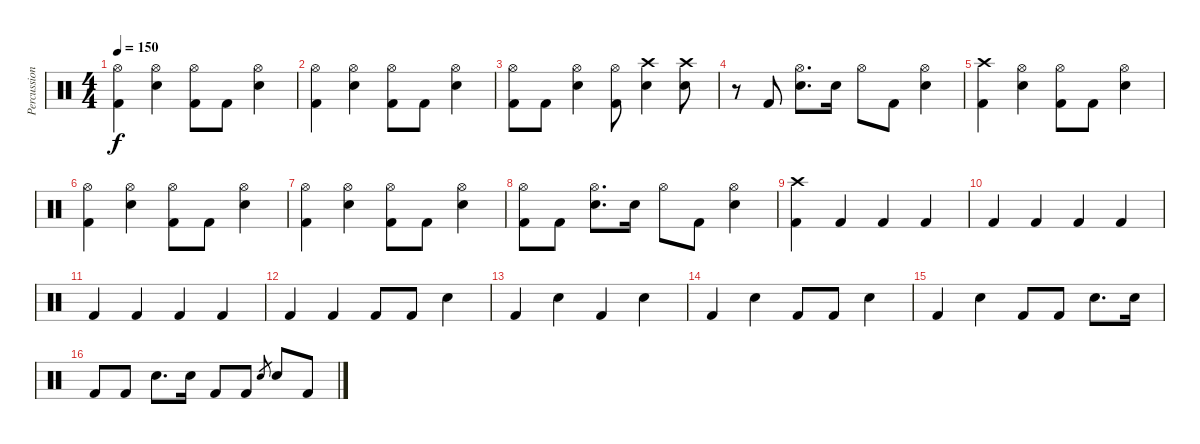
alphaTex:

\track ("Percussion" "Percussion") {instrument percussion}
\staff {score}
\articulation defaults
\ts (4 4)
\tempo 150
\clef neutral
\ks c
("Hi-Hat (open)" "Kick (hit) 2").4{dy f} ("Hi-Hat (open)" "Snare (hit) 2").4 ("Hi-Hat (open)" "Kick (hit) 2").8 "Kick (hit) 2".8 ("Hi-Hat (open)" "Snare (hit) 2").4 |
("Hi-Hat (open)" "Kick (hit) 2").4 ("Hi-Hat (open)" "Snare (hit) 2").4 ("Hi-Hat (open)" "Kick (hit) 2").8 "Kick (hit) 2".8 ("Hi-Hat (open)" "Snare (hit) 2").4 |
("Hi-Hat (open)" "Kick (hit) 2").8 "Kick (hit) 2".8 ("Hi-Hat (open)" "Snare (hit) 2").4 ("Hi-Hat (open)" "Kick (hit) 2").8 ("Crash high (hit)" "Snare (hit) 2").4 ("Crash high (hit)" "Snare (hit) 2").8 |
r.8 "Kick (hit) 2".8 ("Hi-Hat (open)" "Snare (hit) 2").8{d} "Snare (hit) 2".16 "Hi-Hat (open)".8 "Kick (hit) 2".8 ("Hi-Hat (open)" "Snare (hit) 2").4 |
("Crash high (hit)" "Kick (hit) 2").4 ("Hi-Hat (open)" "Snare (hit) 2").4 ("Hi-Hat (open)" "Kick (hit) 2").8 "Kick (hit) 2".8 ("Hi-Hat (open)" "Snare (hit) 2").4 |
("Hi-Hat (open)" "Kick (hit) 2").4 ("Hi-Hat (open)" "Snare (hit) 2").4 ("Hi-Hat (open)" "Kick (hit) 2").8 "Kick (hit) 2".8 ("Hi-Hat (open)" "Snare (hit) 2").4 |
("Hi-Hat (open)" "Kick (hit) 2").4 ("Hi-Hat (open)" "Snare (hit) 2").4 ("Hi-Hat (open)" "Kick (hit) 2").8 "Kick (hit) 2".8 ("Hi-Hat (open)" "Snare (hit) 2").4 |
("Hi-Hat (open)" "Kick (hit) 2").8 "Kick (hit) 2".8 ("Hi-Hat (open)" "Snare (hit) 2").8{d} "Snare (hit) 2".16 "Hi-Hat (open)".8 "Kick (hit) 2".8 ("Hi-Hat (open)" "Snare (hit) 2").4 |
("Crash high (hit)" "Kick (hit) 2").4 "Kick (hit) 2".4 "Kick (hit) 2".4 "Kick (hit) 2".4 |
"Kick (hit) 2".4 "Kick (hit) 2".4 "Kick (hit) 2".4 "Kick (hit) 2".4 |
"Kick (hit) 2".4 "Kick (hit) 2".4 "Kick (hit) 2".4 "Kick (hit) 2".4 |
"Kick (hit) 2".4 "Kick (hit) 2".4 "Kick (hit) 2".8 "Kick (hit) 2".8 "Snare (hit) 2".4 |
"Kick (hit) 2".4 "Snare (hit) 2".4 "Kick (hit) 2".4 "Snare (hit) 2".4 |
"Kick (hit) 2".4 "Snare (hit) 2".4 "Kick (hit) 2".8 "Kick (hit) 2".8 "Snare (hit) 2".4 |
"Kick (hit) 2".4 "Snare (hit) 2".4 "Kick (hit) 2".8 "Kick (hit) 2".8 "Snare (hit) 2".8{d} "Snare (hit) 2".16 |
"Kick (hit) 2".8 "Kick (hit) 2".8 "Snare (hit) 2".8{d} "Snare (hit) 2".16 "Kick (hit) 2".8 "Kick (hit) 2".8 "Snare (hit) 2".8{gr} "Snare (hit) 2".8 "Kick (hit) 2".8
